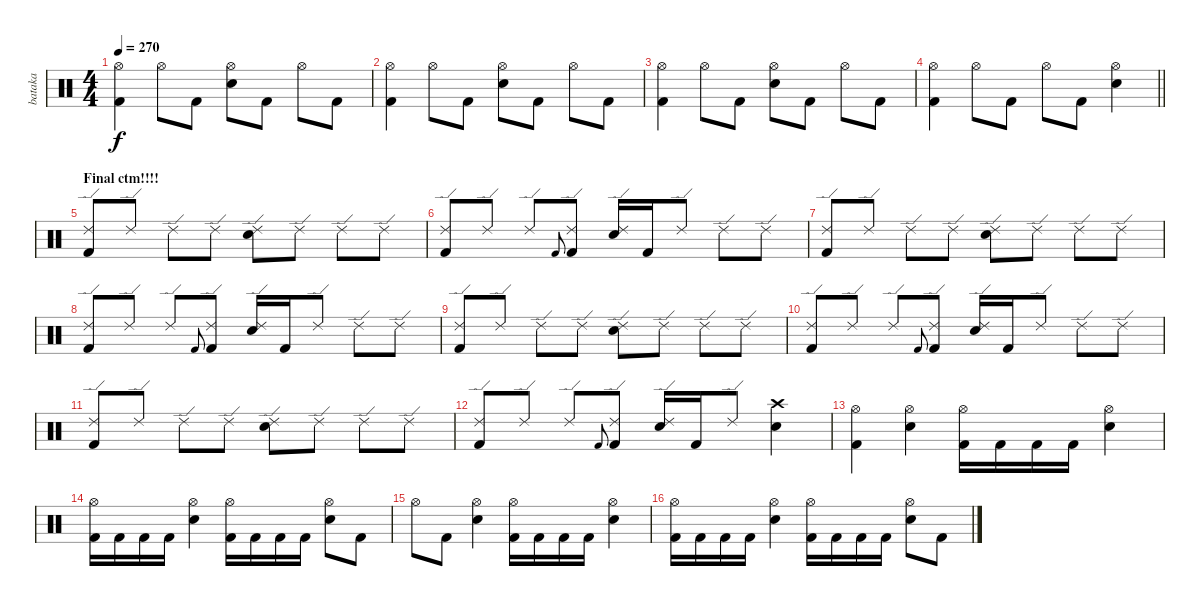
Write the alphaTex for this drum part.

\track ("bataka" "bataka") {instrument percussion}
\staff {score}
\articulation defaults
\ts (4 4)
\tempo 270
\clef neutral
\ks c
("Hi-Hat (open)" "Kick (hit) 2").4{dy f} "Hi-Hat (open)".8 "Kick (hit) 2".8 ("Hi-Hat (open)" "Electric Snare (hit)").8 "Kick (hit) 2".8 "Hi-Hat (open)".8 "Kick (hit) 2".8 |
("Hi-Hat (open)" "Kick (hit) 2").4 "Hi-Hat (open)".8 "Kick (hit) 2".8 ("Hi-Hat (open)" "Electric Snare (hit)").8 "Kick (hit) 2".8 "Hi-Hat (open)".8 "Kick (hit) 2".8 |
("Hi-Hat (open)" "Kick (hit) 2").4 "Hi-Hat (open)".8 "Kick (hit) 2".8 ("Hi-Hat (open)" "Electric Snare (hit)").8 "Kick (hit) 2".8 "Hi-Hat (open)".8 "Kick (hit) 2".8 |
\barLineRight lightlight
("Hi-Hat (open)" "Kick (hit) 2").4 "Hi-Hat (open)".8 "Kick (hit) 2".8 "Hi-Hat (open)".8 "Kick (hit) 2".8 ("Hi-Hat (open)" "Electric Snare (hit)").4 |
\section ("" "Final ctm!!!!")
("Ride (edge) 2" "Kick (hit) 2").8 "Ride (edge) 2".8 "Ride (edge) 2".8 "Ride (edge) 2".8 ("Ride (edge) 2" "Electric Snare (hit)").8 "Ride (edge) 2".8 "Ride (edge) 2".8 "Ride (edge) 2".8 |
("Ride (edge) 2" "Kick (hit) 2").8 "Ride (edge) 2".8 "Ride (edge) 2".8 "Kick (hit) 2".8{gr onbeat} ("Ride (edge) 2" "Kick (hit) 2").8 ("Ride (edge) 2" "Electric Snare (hit)").16 "Kick (hit) 2".16 "Ride (edge) 2".8 "Ride (edge) 2".8 "Ride (edge) 2".8 |
("Ride (edge) 2" "Kick (hit) 2").8 "Ride (edge) 2".8 "Ride (edge) 2".8 "Ride (edge) 2".8 ("Ride (edge) 2" "Electric Snare (hit)").8 "Ride (edge) 2".8 "Ride (edge) 2".8 "Ride (edge) 2".8 |
("Ride (edge) 2" "Kick (hit) 2").8 "Ride (edge) 2".8 "Ride (edge) 2".8 "Kick (hit) 2".8{gr onbeat} ("Ride (edge) 2" "Kick (hit) 2").8 ("Ride (edge) 2" "Electric Snare (hit)").16 "Kick (hit) 2".16 "Ride (edge) 2".8 "Ride (edge) 2".8 "Ride (edge) 2".8 |
("Ride (edge) 2" "Kick (hit) 2").8 "Ride (edge) 2".8 "Ride (edge) 2".8 "Ride (edge) 2".8 ("Ride (edge) 2" "Electric Snare (hit)").8 "Ride (edge) 2".8 "Ride (edge) 2".8 "Ride (edge) 2".8 |
("Ride (edge) 2" "Kick (hit) 2").8 "Ride (edge) 2".8 "Ride (edge) 2".8 "Kick (hit) 2".8{gr onbeat} ("Ride (edge) 2" "Kick (hit) 2").8 ("Ride (edge) 2" "Electric Snare (hit)").16 "Kick (hit) 2".16 "Ride (edge) 2".8 "Ride (edge) 2".8 "Ride (edge) 2".8 |
("Ride (edge) 2" "Kick (hit) 2").8 "Ride (edge) 2".8 "Ride (edge) 2".8 "Ride (edge) 2".8 ("Ride (edge) 2" "Electric Snare (hit)").8 "Ride (edge) 2".8 "Ride (edge) 2".8 "Ride (edge) 2".8 |
("Ride (edge) 2" "Kick (hit) 2").8 "Ride (edge) 2".8 "Ride (edge) 2".8 "Kick (hit) 2".8{gr onbeat} ("Ride (edge) 2" "Kick (hit) 2").8 ("Ride (edge) 2" "Electric Snare (hit)").16 "Kick (hit) 2".16 "Ride (edge) 2".8 ("Crash high (hit)" "Electric Snare (hit)").4 |
("Hi-Hat (open)" "Kick (hit) 2").4 ("Hi-Hat (open)" "Electric Snare (hit)").4 ("Hi-Hat (open)" "Kick (hit) 2").16 "Kick (hit) 2".16 "Kick (hit) 2".16 "Kick (hit) 2".16 ("Hi-Hat (open)" "Electric Snare (hit)").4 |
("Hi-Hat (open)" "Kick (hit) 2").16 "Kick (hit) 2".16 "Kick (hit) 2".16 "Kick (hit) 2".16 ("Hi-Hat (open)" "Electric Snare (hit)").4 ("Hi-Hat (open)" "Kick (hit) 2").16 "Kick (hit) 2".16 "Kick (hit) 2".16 "Kick (hit) 2".16 ("Hi-Hat (open)" "Electric Snare (hit)").8 "Kick (hit) 2".8 |
"Hi-Hat (open)".8 "Kick (hit) 2".8 ("Hi-Hat (open)" "Electric Snare (hit)").4 ("Hi-Hat (open)" "Kick (hit) 2").16 "Kick (hit) 2".16 "Kick (hit) 2".16 "Kick (hit) 2".16 ("Hi-Hat (open)" "Electric Snare (hit)").4 |
("Hi-Hat (open)" "Kick (hit) 2").16 "Kick (hit) 2".16 "Kick (hit) 2".16 "Kick (hit) 2".16 ("Hi-Hat (open)" "Electric Snare (hit)").4 ("Hi-Hat (open)" "Kick (hit) 2").16 "Kick (hit) 2".16 "Kick (hit) 2".16 "Kick (hit) 2".16 ("Hi-Hat (open)" "Electric Snare (hit)").8 "Kick (hit) 2".8
